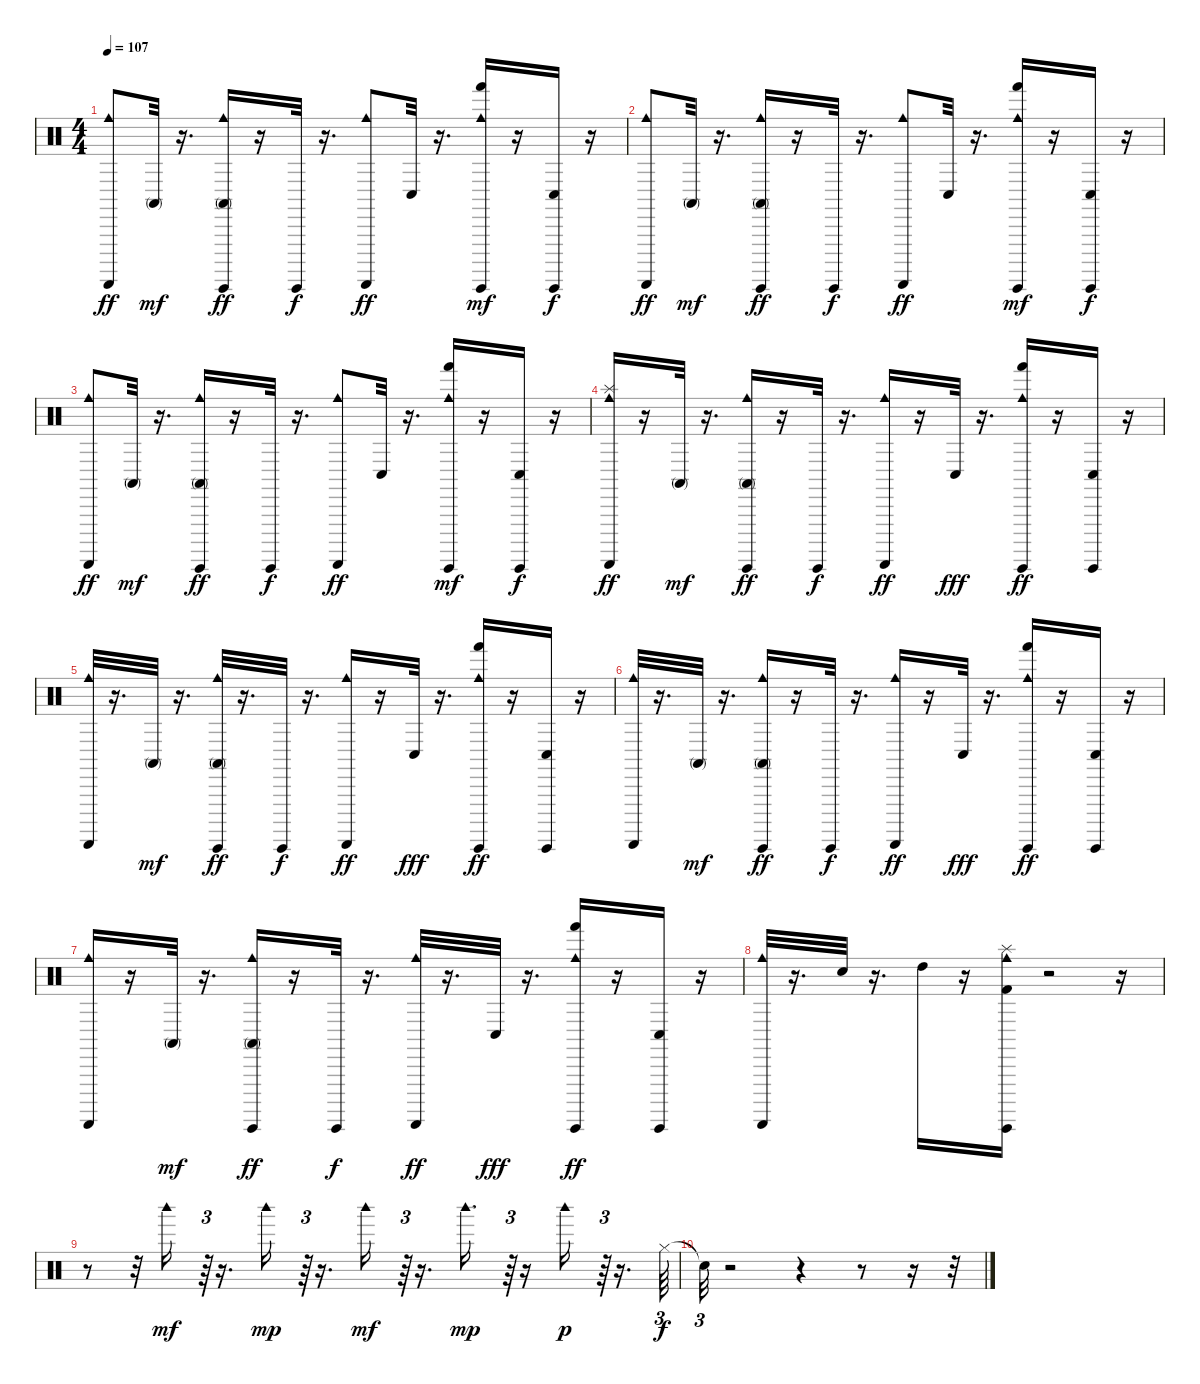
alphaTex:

\track "" {instrument percussion}
\staff {score}
\articulation defaults
\ts (4 4)
\tempo 107
\clef neutral
\ks c
("Cowbell medium (hit)" "Guiro (scrap-return)").8{dy ff} "Conga high (mute)".32{dy mf} r.16{d} ("Cowbell medium (hit)" "Conga high (mute)" "Guiro (hit)").16{dy ff} r.16 "Guiro (hit)".32{dy f} r.16{d} ("Cowbell medium (hit)" "Guiro (scrap-return)").8{dy ff} "Conga low (hit)".32 r.16{d} ("Cowbell medium (hit)" "Hand (hit)" "Guiro (hit)").16{dy mf} r.16 ("Conga low (hit)" "Guiro (hit)").16{dy f} r.16 |
("Cowbell medium (hit)" "Guiro (scrap-return)").8{dy ff} "Conga high (mute)".32{dy mf} r.16{d} ("Cowbell medium (hit)" "Conga high (mute)" "Guiro (hit)").16{dy ff} r.16 "Guiro (hit)".32{dy f} r.16{d} ("Cowbell medium (hit)" "Guiro (scrap-return)").8{dy ff} "Conga low (hit)".32 r.16{d} ("Cowbell medium (hit)" "Hand (hit)" "Guiro (hit)").16{dy mf} r.16 ("Conga low (hit)" "Guiro (hit)").16{dy f} r.16 |
("Cowbell medium (hit)" "Guiro (scrap-return)").8{dy ff} "Conga high (mute)".32{dy mf} r.16{d} ("Cowbell medium (hit)" "Conga high (mute)" "Guiro (hit)").16{dy ff} r.16 "Guiro (hit)".32{dy f} r.16{d} ("Cowbell medium (hit)" "Guiro (scrap-return)").8{dy ff} "Conga low (hit)".32 r.16{d} ("Cowbell medium (hit)" "Hand (hit)" "Guiro (hit)").16{dy mf} r.16 ("Conga low (hit)" "Guiro (hit)").16{dy f} r.16 |
("Splash (hit)" "Cowbell medium (hit)" "Guiro (scrap-return)").16{dy ff} r.16 "Conga high (mute)".32{dy mf} r.16{d} ("Cowbell medium (hit)" "Conga high (mute)" "Guiro (hit)").16{dy ff} r.16 "Guiro (hit)".32{dy f} r.16{d} ("Cowbell medium (hit)" "Guiro (scrap-return)").16{dy ff} r.16 "Conga low (hit)".32{dy fff} r.16{d} ("Cowbell medium (hit)" "Hand (hit)" "Guiro (hit)").16{dy ff} r.16 ("Conga low (hit)" "Guiro (hit)").16 r.16 |
("Cowbell medium (hit)" "Guiro (scrap-return)").32 r.16{d} "Conga high (mute)".32{dy mf} r.16{d} ("Cowbell medium (hit)" "Conga high (mute)" "Guiro (hit)").32{dy ff} r.16{d} "Guiro (hit)".32{dy f} r.16{d} ("Cowbell medium (hit)" "Guiro (scrap-return)").16{dy ff} r.16 "Conga low (hit)".32{dy fff} r.16{d} ("Cowbell medium (hit)" "Guiro (hit)" "Hand (hit)").16{dy ff} r.16 ("Conga low (hit)" "Guiro (hit)").16 r.16 |
("Cowbell medium (hit)" "Guiro (scrap-return)").32 r.16{d} "Conga high (mute)".32{dy mf} r.16{d} ("Cowbell medium (hit)" "Conga high (mute)" "Guiro (hit)").16{dy ff} r.16 "Guiro (hit)".32{dy f} r.16{d} ("Cowbell medium (hit)" "Guiro (scrap-return)").16{dy ff} r.16 "Conga low (hit)".32{dy fff} r.16{d} ("Cowbell medium (hit)" "Hand (hit)" "Guiro (hit)").16{dy ff} r.16 ("Conga low (hit)" "Guiro (hit)").16 r.16 |
("Cowbell medium (hit)" "Guiro (scrap-return)").16 r.16 "Conga high (mute)".32{dy mf} r.16{d} ("Cowbell medium (hit)" "Guiro (hit)" "Conga high (mute)").16{dy ff} r.16 "Guiro (hit)".32{dy f} r.16{d} ("Cowbell medium (hit)" "Guiro (scrap-return)").32{dy ff} r.16{d} "Conga low (hit)".32{dy fff} r.16{d} ("Cowbell medium (hit)" "Guiro (hit)" "Hand (hit)").16{dy ff} r.16 ("Conga low (hit)" "Guiro (hit)").16 r.16 |
("Cowbell medium (hit)" "Guiro (scrap-return)").32 r.16{d} "Electric Snare (hit)".32 r.16{d} "High Tom (hit)".16 r.16 ("Kick (hit) 2" "Splash (hit)" "Cowbell medium (hit)" "Guiro (hit)").16 r.2 r.16 |
r.8 r.32 "Woodblock high (hit)".16{dy mf} r.64{tu (3 2)} r.16{d} "Woodblock high (hit)".16{dy mp} r.64{tu (3 2)} r.16{d} "Woodblock high (hit)".16{dy mf} r.64{tu (3 2)} r.16{d} "Woodblock high (hit)".16{d dy mp} r.64{tu (3 2)} r.16 "Woodblock high (hit)".16{dy p} r.64{tu (3 2)} r.16{d} "Hi-Hat (closed)".64{tu (3 2) dy f} |
"Snare (hit)"{t}.32{tu (3 2)} r.2 r.4 r.8 r.16 r.32
